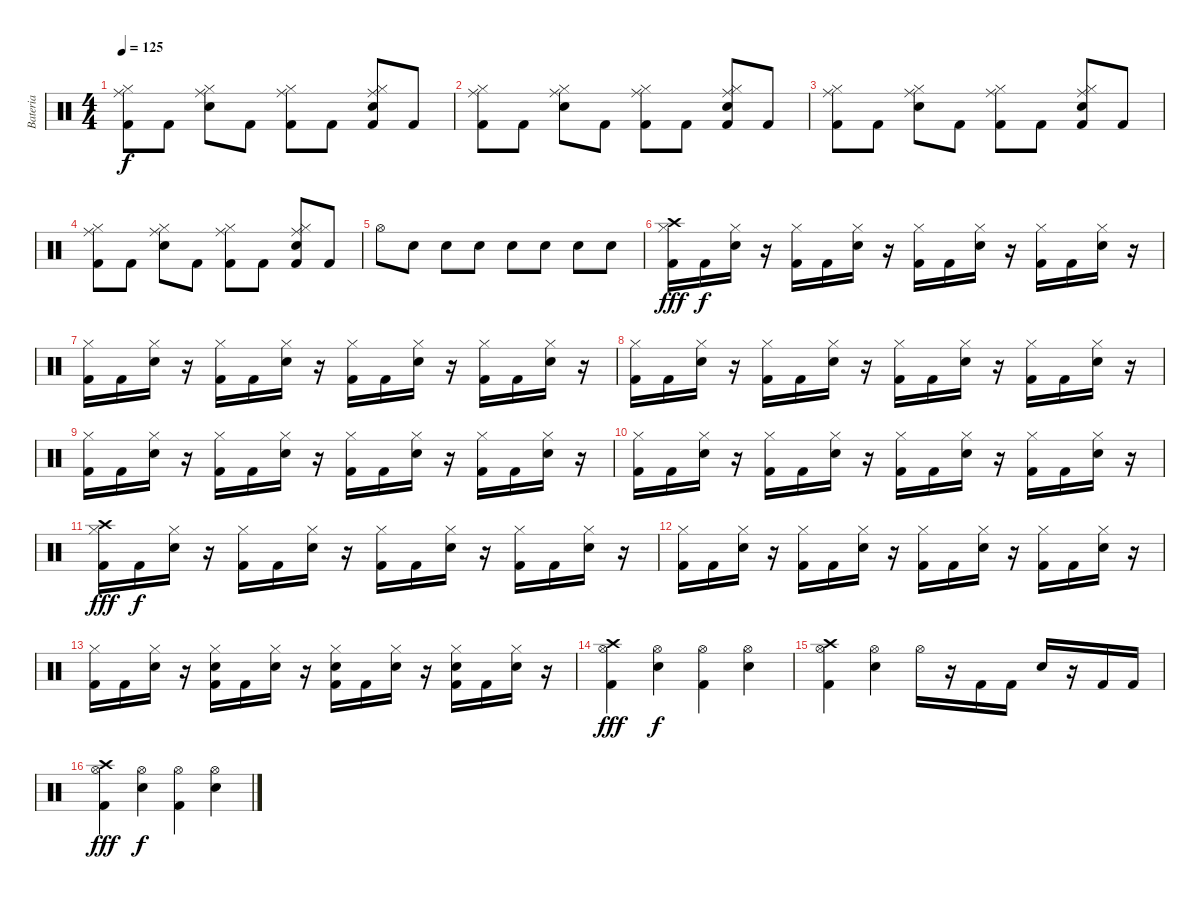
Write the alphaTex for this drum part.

\track ("Bateria" "Bateria") {instrument percussion}
\staff {score}
\articulation defaults
\ts (4 4)
\tempo 125
\clef neutral
\ks c
("Kick (hit) 2" "Hi-Hat (closed)" "Ride (middle)").8{dy f} "Kick (hit) 2".8 ("Snare (hit) 2" "Hi-Hat (closed)" "Ride (middle)").8 "Kick (hit) 2".8 ("Kick (hit) 2" "Hi-Hat (closed)" "Ride (middle)").8 "Kick (hit) 2".8 ("Kick (hit) 2" "Snare (hit) 2" "Hi-Hat (closed)" "Ride (middle)").8 "Kick (hit) 2".8 |
("Kick (hit) 2" "Hi-Hat (closed)" "Ride (middle)").8 "Kick (hit) 2".8 ("Snare (hit) 2" "Hi-Hat (closed)" "Ride (middle)").8 "Kick (hit) 2".8 ("Kick (hit) 2" "Hi-Hat (closed)" "Ride (middle)").8 "Kick (hit) 2".8 ("Kick (hit) 2" "Snare (hit) 2" "Hi-Hat (closed)" "Ride (middle)").8 "Kick (hit) 2".8 |
("Kick (hit) 2" "Hi-Hat (closed)" "Ride (middle)").8 "Kick (hit) 2".8 ("Snare (hit) 2" "Hi-Hat (closed)" "Ride (middle)").8 "Kick (hit) 2".8 ("Kick (hit) 2" "Hi-Hat (closed)" "Ride (middle)").8 "Kick (hit) 2".8 ("Kick (hit) 2" "Snare (hit) 2" "Hi-Hat (closed)" "Ride (middle)").8 "Kick (hit) 2".8 |
("Kick (hit) 2" "Hi-Hat (closed)" "Ride (middle)").8 "Kick (hit) 2".8 ("Snare (hit) 2" "Hi-Hat (closed)" "Ride (middle)").8 "Kick (hit) 2".8 ("Kick (hit) 2" "Hi-Hat (closed)" "Ride (middle)").8 "Kick (hit) 2".8 ("Kick (hit) 2" "Snare (hit) 2" "Hi-Hat (closed)" "Ride (middle)").8 "Kick (hit) 2".8 |
"Hi-Hat (open)".8 "Snare (hit) 2".8 "Snare (hit) 2".8 "Snare (hit) 2".8 "Snare (hit) 2".8 "Snare (hit) 2".8 "Snare (hit) 2".8 "Snare (hit) 2".8 |
("Crash high (hit)" "Kick (hit) 2" "Hi-Hat (closed)").16{dy fff} "Kick (hit) 2".16{dy f} ("Snare (hit) 2" "Hi-Hat (closed)").16 r.16 ("Kick (hit) 2" "Hi-Hat (closed)").16 "Kick (hit) 2".16 ("Snare (hit) 2" "Hi-Hat (closed)").16 r.16 ("Kick (hit) 2" "Hi-Hat (closed)").16 "Kick (hit) 2".16 ("Snare (hit) 2" "Hi-Hat (closed)").16 r.16 ("Kick (hit) 2" "Hi-Hat (closed)").16 "Kick (hit) 2".16 ("Snare (hit) 2" "Hi-Hat (closed)").16 r.16 |
("Kick (hit) 2" "Hi-Hat (closed)").16 "Kick (hit) 2".16 ("Snare (hit) 2" "Hi-Hat (closed)").16 r.16 ("Kick (hit) 2" "Hi-Hat (closed)").16 "Kick (hit) 2".16 ("Snare (hit) 2" "Hi-Hat (closed)").16 r.16 ("Kick (hit) 2" "Hi-Hat (closed)").16 "Kick (hit) 2".16 ("Snare (hit) 2" "Hi-Hat (closed)").16 r.16 ("Kick (hit) 2" "Hi-Hat (closed)").16 "Kick (hit) 2".16 ("Snare (hit) 2" "Hi-Hat (closed)").16 r.16 |
("Kick (hit) 2" "Hi-Hat (closed)").16 "Kick (hit) 2".16 ("Snare (hit) 2" "Hi-Hat (closed)").16 r.16 ("Kick (hit) 2" "Hi-Hat (closed)").16 "Kick (hit) 2".16 ("Snare (hit) 2" "Hi-Hat (closed)").16 r.16 ("Kick (hit) 2" "Hi-Hat (closed)").16 "Kick (hit) 2".16 ("Snare (hit) 2" "Hi-Hat (closed)").16 r.16 ("Kick (hit) 2" "Hi-Hat (closed)").16 "Kick (hit) 2".16 ("Snare (hit) 2" "Hi-Hat (closed)").16 r.16 |
("Kick (hit) 2" "Hi-Hat (closed)").16 "Kick (hit) 2".16 ("Snare (hit) 2" "Hi-Hat (closed)").16 r.16 ("Kick (hit) 2" "Hi-Hat (closed)").16 "Kick (hit) 2".16 ("Snare (hit) 2" "Hi-Hat (closed)").16 r.16 ("Kick (hit) 2" "Hi-Hat (closed)").16 "Kick (hit) 2".16 ("Snare (hit) 2" "Hi-Hat (closed)").16 r.16 ("Kick (hit) 2" "Hi-Hat (closed)").16 "Kick (hit) 2".16 ("Snare (hit) 2" "Hi-Hat (closed)").16 r.16 |
("Kick (hit) 2" "Hi-Hat (closed)").16 "Kick (hit) 2".16 ("Snare (hit) 2" "Hi-Hat (closed)").16 r.16 ("Kick (hit) 2" "Hi-Hat (closed)").16 "Kick (hit) 2".16 ("Snare (hit) 2" "Hi-Hat (closed)").16 r.16 ("Kick (hit) 2" "Hi-Hat (closed)").16 "Kick (hit) 2".16 ("Snare (hit) 2" "Hi-Hat (closed)").16 r.16 ("Kick (hit) 2" "Hi-Hat (closed)").16 "Kick (hit) 2".16 ("Snare (hit) 2" "Hi-Hat (closed)").16 r.16 |
("Crash high (hit)" "Kick (hit) 2" "Hi-Hat (closed)").16{dy fff} "Kick (hit) 2".16{dy f} ("Snare (hit) 2" "Hi-Hat (closed)").16 r.16 ("Kick (hit) 2" "Hi-Hat (closed)").16 "Kick (hit) 2".16 ("Snare (hit) 2" "Hi-Hat (closed)").16 r.16 ("Kick (hit) 2" "Hi-Hat (closed)").16 "Kick (hit) 2".16 ("Snare (hit) 2" "Hi-Hat (closed)").16 r.16 ("Kick (hit) 2" "Hi-Hat (closed)").16 "Kick (hit) 2".16 ("Snare (hit) 2" "Hi-Hat (closed)").16 r.16 |
("Kick (hit) 2" "Hi-Hat (closed)").16 "Kick (hit) 2".16 ("Snare (hit) 2" "Hi-Hat (closed)").16 r.16 ("Kick (hit) 2" "Hi-Hat (closed)").16 "Kick (hit) 2".16 ("Snare (hit) 2" "Hi-Hat (closed)").16 r.16 ("Kick (hit) 2" "Hi-Hat (closed)").16 "Kick (hit) 2".16 ("Snare (hit) 2" "Hi-Hat (closed)").16 r.16 ("Kick (hit) 2" "Hi-Hat (closed)").16 "Kick (hit) 2".16 ("Snare (hit) 2" "Hi-Hat (closed)").16 r.16 |
("Kick (hit) 2" "Hi-Hat (closed)").16 "Kick (hit) 2".16 ("Snare (hit) 2" "Hi-Hat (closed)").16 r.16 ("Snare (hit) 2" "Kick (hit) 2" "Hi-Hat (closed)").16 "Kick (hit) 2".16 ("Snare (hit) 2" "Hi-Hat (closed)").16 r.16 ("Snare (hit) 2" "Kick (hit) 2" "Hi-Hat (closed)").16 "Kick (hit) 2".16 ("Snare (hit) 2" "Hi-Hat (closed)").16 r.16 ("Snare (hit) 2" "Kick (hit) 2" "Hi-Hat (closed)").16 "Kick (hit) 2".16 ("Snare (hit) 2" "Hi-Hat (closed)").16 r.16 |
("Hi-Hat (open)" "Kick (hit) 2" "Crash high (hit)").4{dy fff} ("Hi-Hat (open)" "Snare (hit) 2").4{dy f} ("Hi-Hat (open)" "Kick (hit) 2").4 ("Hi-Hat (open)" "Snare (hit) 2").4 |
("Hi-Hat (open)" "Kick (hit) 2" "Crash high (hit)").4 ("Hi-Hat (open)" "Snare (hit) 2").4 "Hi-Hat (open)".16 r.16 "Kick (hit) 2".16 "Kick (hit) 2".16 "Snare (hit) 2".16 r.16 "Kick (hit) 2".16 "Kick (hit) 2".16 |
("Hi-Hat (open)" "Kick (hit) 2" "Crash high (hit)").4{dy fff} ("Hi-Hat (open)" "Snare (hit) 2").4{dy f} ("Hi-Hat (open)" "Kick (hit) 2").4 ("Hi-Hat (open)" "Snare (hit) 2").4
